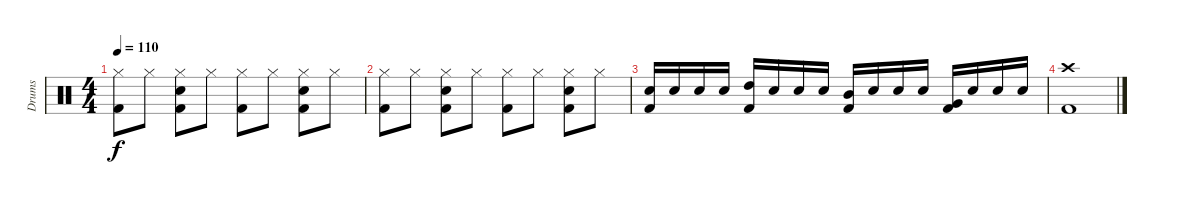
\track ("Drums" "Drums") {instrument percussion}
\staff {score}
\articulation defaults
\ts (4 4)
\tempo 110
\clef neutral
\ks c
("Hi-Hat (closed)" "Kick (hit) 2").8{dy f} "Hi-Hat (closed)".8 ("Hi-Hat (closed)" "Snare (hit) 2" "Kick (hit) 2").8 "Hi-Hat (closed)".8 ("Hi-Hat (closed)" "Kick (hit) 2").8 "Hi-Hat (closed)".8 ("Hi-Hat (closed)" "Snare (hit) 2" "Kick (hit) 2").8 "Hi-Hat (closed)".8 |
("Hi-Hat (closed)" "Kick (hit) 2").8 "Hi-Hat (closed)".8 ("Hi-Hat (closed)" "Snare (hit) 2" "Kick (hit) 2").8 "Hi-Hat (closed)".8 ("Hi-Hat (closed)" "Kick (hit) 2").8 "Hi-Hat (closed)".8 ("Hi-Hat (closed)" "Snare (hit) 2" "Kick (hit) 2").8 "Hi-Hat (closed)".8 |
("Snare (hit) 2" "Kick (hit) 2").16 "Snare (hit) 2".16 "Snare (hit) 2".16 "Snare (hit) 2".16 ("High Tom (hit)" "Kick (hit) 2").16 "Snare (hit) 2".16 "Snare (hit) 2".16 "Snare (hit) 2".16 ("Mid Tom (hit)" "Kick (hit) 2").16 "Snare (hit) 2".16 "Snare (hit) 2".16 "Snare (hit) 2".16 ("Very Low Tom (hit)" "Kick (hit) 2").16 "Snare (hit) 2".16 "Snare (hit) 2".16 "Snare (hit) 2".16 |
("Crash high (hit)" "Kick (hit) 2").1
